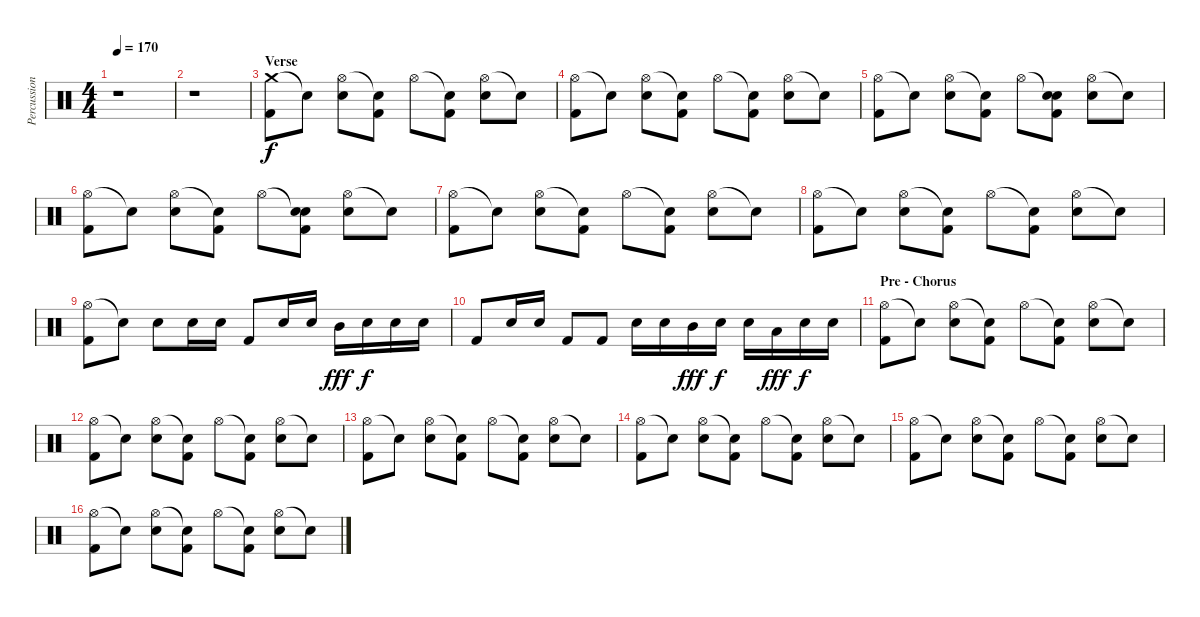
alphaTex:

\track ("Percussions" "Percussion") {instrument percussion}
\staff {score}
\articulation defaults
\ts (4 4)
\tempo 170
\clef neutral
\ks c
r.1{dy f} |
r.1 |
\section ("" "Verse")
("Crash medium (hit)" "Kick (hit) 2").8 "Snare (hit)"{t}.8 ("Hi-Hat (open)" "Snare (hit) 2").8 ("Snare (hit)"{t} "Kick (hit) 2").8 "Hi-Hat (open)".8 ("Snare (hit)"{t} "Kick (hit) 2").8 ("Hi-Hat (open)" "Snare (hit) 2").8 "Snare (hit)"{t}.8 |
("Hi-Hat (open)" "Kick (hit) 2").8 "Snare (hit)"{t}.8 ("Hi-Hat (open)" "Snare (hit) 2").8 ("Snare (hit)"{t} "Kick (hit) 2").8 "Hi-Hat (open)".8 ("Snare (hit)"{t} "Kick (hit) 2").8 ("Hi-Hat (open)" "Snare (hit) 2").8 "Snare (hit)"{t}.8 |
("Hi-Hat (open)" "Kick (hit) 2").8 "Snare (hit)"{t}.8 ("Hi-Hat (open)" "Snare (hit) 2").8 ("Snare (hit)"{t} "Kick (hit) 2").8 "Hi-Hat (open)".8 ("Snare (hit)"{t} "Snare (hit) 2" "Kick (hit) 2").8 ("Hi-Hat (open)" "Snare (hit) 2").8 "Snare (hit)"{t}.8 |
("Hi-Hat (open)" "Kick (hit) 2").8 "Snare (hit)"{t}.8 ("Hi-Hat (open)" "Snare (hit) 2").8 ("Snare (hit)"{t} "Kick (hit) 2").8 "Hi-Hat (open)".8 ("Snare (hit)"{t} "Snare (hit) 2" "Kick (hit) 2").8 ("Hi-Hat (open)" "Snare (hit) 2").8 "Snare (hit)"{t}.8 |
("Hi-Hat (open)" "Kick (hit) 2").8 "Snare (hit)"{t}.8 ("Hi-Hat (open)" "Snare (hit) 2").8 ("Snare (hit)"{t} "Kick (hit) 2").8 "Hi-Hat (open)".8 ("Snare (hit)"{t} "Kick (hit) 2").8 ("Hi-Hat (open)" "Snare (hit) 2").8 "Snare (hit)"{t}.8 |
("Hi-Hat (open)" "Kick (hit) 2").8 "Snare (hit)"{t}.8 ("Hi-Hat (open)" "Snare (hit) 2").8 ("Snare (hit)"{t} "Kick (hit) 2").8 "Hi-Hat (open)".8 ("Snare (hit)"{t} "Kick (hit) 2").8 ("Hi-Hat (open)" "Snare (hit) 2").8 "Snare (hit)"{t}.8 |
("Hi-Hat (open)" "Kick (hit) 2").8 "Snare (hit)"{t}.8 "Snare (hit) 2".8 "Snare (hit) 2".16 "Snare (hit) 2".16 "Kick (hit) 2".8 "Snare (hit) 2".16 "Snare (hit) 2".16 "Mid Tom (hit)".16{dy fff} "Snare (hit) 2".16{dy f} "Snare (hit) 2".16 "Snare (hit) 2".16 |
"Kick (hit) 2".8 "Snare (hit) 2".16 "Snare (hit) 2".16 "Kick (hit) 2".8 "Kick (hit) 2".8 "Snare (hit) 2".16 "Snare (hit) 2".16 "Mid Tom (hit)".16{dy fff} "Snare (hit) 2".16{dy f} "Snare (hit) 2".16 "Low Tom (hit)".16{dy fff} "Snare (hit) 2".16{dy f} "Snare (hit) 2".16 |
\section ("" "Pre - Chorus")
("Hi-Hat (open)" "Kick (hit) 2").8 "Snare (hit)"{t}.8 ("Hi-Hat (open)" "Snare (hit) 2").8 ("Snare (hit)"{t} "Kick (hit) 2").8 "Hi-Hat (open)".8 ("Snare (hit)"{t} "Kick (hit) 2").8 ("Hi-Hat (open)" "Snare (hit) 2").8 "Snare (hit)"{t}.8 |
("Hi-Hat (open)" "Kick (hit) 2").8 "Snare (hit)"{t}.8 ("Hi-Hat (open)" "Snare (hit) 2").8 ("Snare (hit)"{t} "Kick (hit) 2").8 "Hi-Hat (open)".8 ("Snare (hit)"{t} "Kick (hit) 2").8 ("Hi-Hat (open)" "Snare (hit) 2").8 "Snare (hit)"{t}.8 |
("Hi-Hat (open)" "Kick (hit) 2").8 "Snare (hit)"{t}.8 ("Hi-Hat (open)" "Snare (hit) 2").8 ("Snare (hit)"{t} "Kick (hit) 2").8 "Hi-Hat (open)".8 ("Snare (hit)"{t} "Kick (hit) 2").8 ("Hi-Hat (open)" "Snare (hit) 2").8 "Snare (hit)"{t}.8 |
("Hi-Hat (open)" "Kick (hit) 2").8 "Snare (hit)"{t}.8 ("Hi-Hat (open)" "Snare (hit) 2").8 ("Snare (hit)"{t} "Kick (hit) 2").8 "Hi-Hat (open)".8 ("Snare (hit)"{t} "Kick (hit) 2").8 ("Hi-Hat (open)" "Snare (hit) 2").8 "Snare (hit)"{t}.8 |
("Hi-Hat (open)" "Kick (hit) 2").8 "Snare (hit)"{t}.8 ("Hi-Hat (open)" "Snare (hit) 2").8 ("Snare (hit)"{t} "Kick (hit) 2").8 "Hi-Hat (open)".8 ("Snare (hit)"{t} "Kick (hit) 2").8 ("Hi-Hat (open)" "Snare (hit) 2").8 "Snare (hit)"{t}.8 |
("Hi-Hat (open)" "Kick (hit) 2").8 "Snare (hit)"{t}.8 ("Hi-Hat (open)" "Snare (hit) 2").8 ("Snare (hit)"{t} "Kick (hit) 2").8 "Hi-Hat (open)".8 ("Snare (hit)"{t} "Kick (hit) 2").8 ("Hi-Hat (open)" "Snare (hit) 2").8 "Snare (hit)"{t}.8
